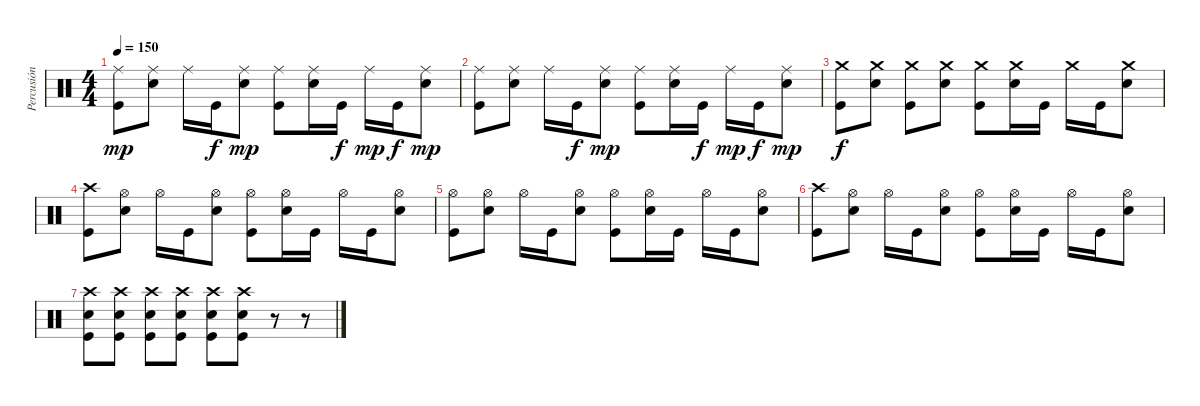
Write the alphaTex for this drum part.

\track ("Percusión" "Percusión") {instrument percussion}
\staff {score}
\articulation defaults
\ts (4 4)
\tempo 150
\clef neutral
\ks c
("Ride (middle)" "Kick (hit)").8{dy mp} ("Ride (middle)" "Snare (hit) 2").8 "Ride (middle)".16 "Kick (hit)".16{dy f} ("Ride (middle)" "Snare (hit) 2").8{dy mp} ("Ride (middle)" "Kick (hit)").8 ("Ride (middle)" "Snare (hit) 2").16 "Kick (hit)".16{dy f} "Ride (middle)".16{dy mp} "Kick (hit)".16{dy f} ("Ride (middle)" "Snare (hit) 2").8{dy mp} |
("Ride (middle)" "Kick (hit)").8 ("Ride (middle)" "Snare (hit) 2").8 "Ride (middle)".16 "Kick (hit)".16{dy f} ("Ride (middle)" "Snare (hit) 2").8{dy mp} ("Ride (middle)" "Kick (hit)").8 ("Ride (middle)" "Snare (hit) 2").16 "Kick (hit)".16{dy f} "Ride (middle)".16{dy mp} "Kick (hit)".16{dy f} ("Ride (middle)" "Snare (hit) 2").8{dy mp} |
("Crash medium (hit)" "Kick (hit)").8{dy f} ("Crash medium (hit)" "Snare (hit) 2").8 ("Crash medium (hit)" "Kick (hit)").8 ("Crash medium (hit)" "Snare (hit) 2").8 ("Crash medium (hit)" "Kick (hit)").8 ("Crash medium (hit)" "Snare (hit) 2").16 "Kick (hit)".16 "Crash medium (hit)".16 "Kick (hit)".16 ("Crash medium (hit)" "Snare (hit) 2").8 |
("Crash high (hit)" "Kick (hit)").8 ("Hi-Hat (open)" "Snare (hit) 2").8 "Hi-Hat (open)".16 "Kick (hit)".16 ("Hi-Hat (open)" "Snare (hit) 2").8 ("Hi-Hat (open)" "Kick (hit)").8 ("Hi-Hat (open)" "Snare (hit) 2").16 "Kick (hit)".16 "Hi-Hat (open)".16 "Kick (hit)".16 ("Hi-Hat (open)" "Snare (hit) 2").8 |
("Hi-Hat (open)" "Kick (hit)").8 ("Hi-Hat (open)" "Snare (hit) 2").8 "Hi-Hat (open)".16 "Kick (hit)".16 ("Hi-Hat (open)" "Snare (hit) 2").8 ("Hi-Hat (open)" "Kick (hit)").8 ("Hi-Hat (open)" "Snare (hit) 2").16 "Kick (hit)".16 "Hi-Hat (open)".16 "Kick (hit)".16 ("Hi-Hat (open)" "Snare (hit) 2").8 |
("Crash high (hit)" "Kick (hit)").8 ("Hi-Hat (open)" "Snare (hit) 2").8 "Hi-Hat (open)".16 "Kick (hit)".16 ("Hi-Hat (open)" "Snare (hit) 2").8 ("Hi-Hat (open)" "Kick (hit)").8 ("Hi-Hat (open)" "Snare (hit) 2").16 "Kick (hit)".16 "Hi-Hat (open)".16 "Kick (hit)".16 ("Hi-Hat (open)" "Snare (hit) 2").8 |
("Crash high (hit)" "Snare (hit) 2" "Kick (hit)").8 ("Crash high (hit)" "Snare (hit) 2" "Kick (hit)").8 ("Crash high (hit)" "Snare (hit) 2" "Kick (hit)").8 ("Crash high (hit)" "Snare (hit) 2" "Kick (hit)").8 ("Crash high (hit)" "Snare (hit) 2" "Kick (hit)").8 ("Crash high (hit)" "Snare (hit) 2" "Kick (hit)").8 r.8 r.8
